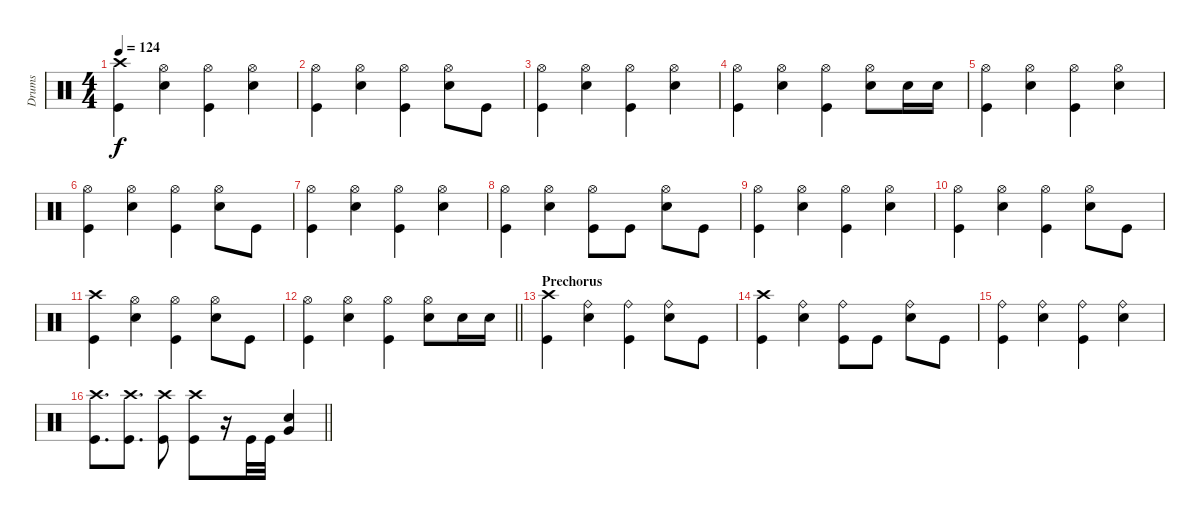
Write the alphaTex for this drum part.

\track ("Drums" "Drums") {instrument percussion}
\staff {score}
\articulation defaults
\ts (4 4)
\tempo 124
\clef neutral
\ks c
("Crash high (hit)" "Kick (hit)").4{dy f} ("Hi-Hat (open)" "Snare (hit) 2").4 ("Hi-Hat (open)" "Kick (hit)").4 ("Hi-Hat (open)" "Snare (hit) 2").4 |
("Hi-Hat (open)" "Kick (hit)").4 ("Hi-Hat (open)" "Snare (hit) 2").4 ("Hi-Hat (open)" "Kick (hit)").4 ("Hi-Hat (open)" "Snare (hit) 2").8 "Kick (hit)".8 |
("Hi-Hat (open)" "Kick (hit)").4 ("Hi-Hat (open)" "Snare (hit) 2").4 ("Hi-Hat (open)" "Kick (hit)").4 ("Hi-Hat (open)" "Snare (hit) 2").4 |
("Hi-Hat (open)" "Kick (hit)").4 ("Hi-Hat (open)" "Snare (hit) 2").4 ("Hi-Hat (open)" "Kick (hit)").4 ("Hi-Hat (open)" "Snare (hit) 2").8 "Snare (hit) 2".16 "Snare (hit) 2".16 |
("Hi-Hat (open)" "Kick (hit)").4 ("Hi-Hat (open)" "Snare (hit) 2").4 ("Hi-Hat (open)" "Kick (hit)").4 ("Hi-Hat (open)" "Snare (hit) 2").4 |
("Hi-Hat (open)" "Kick (hit)").4 ("Hi-Hat (open)" "Snare (hit) 2").4 ("Hi-Hat (open)" "Kick (hit)").4 ("Hi-Hat (open)" "Snare (hit) 2").8 "Kick (hit)".8 |
("Hi-Hat (open)" "Kick (hit)").4 ("Hi-Hat (open)" "Snare (hit) 2").4 ("Hi-Hat (open)" "Kick (hit)").4 ("Hi-Hat (open)" "Snare (hit) 2").4 |
("Hi-Hat (open)" "Kick (hit)").4 ("Hi-Hat (open)" "Snare (hit) 2").4 ("Hi-Hat (open)" "Kick (hit)").8 "Kick (hit)".8 ("Hi-Hat (open)" "Snare (hit) 2").8 "Kick (hit)".8 |
("Hi-Hat (open)" "Kick (hit)").4 ("Hi-Hat (open)" "Snare (hit) 2").4 ("Hi-Hat (open)" "Kick (hit)").4 ("Hi-Hat (open)" "Snare (hit) 2").4 |
("Hi-Hat (open)" "Kick (hit)").4 ("Hi-Hat (open)" "Snare (hit) 2").4 ("Hi-Hat (open)" "Kick (hit)").4 ("Hi-Hat (open)" "Snare (hit) 2").8 "Kick (hit)".8 |
("Crash high (hit)" "Kick (hit)").4 ("Hi-Hat (open)" "Snare (hit) 2").4 ("Hi-Hat (open)" "Kick (hit)").4 ("Hi-Hat (open)" "Snare (hit) 2").8 "Kick (hit)".8 |
\barLineRight lightlight
("Hi-Hat (open)" "Kick (hit)").4 ("Hi-Hat (open)" "Snare (hit) 2").4 ("Hi-Hat (open)" "Kick (hit)").4 ("Hi-Hat (open)" "Snare (hit) 2").8 "Snare (hit) 2".16 "Snare (hit) 2".16 |
\section ("" "Prechorus")
("Crash high (hit)" "Kick (hit)").4 ("Ride (bell)" "Snare (hit) 2").4 ("Ride (bell)" "Kick (hit)").4 ("Ride (bell)" "Snare (hit) 2").8 "Kick (hit)".8 |
("Crash high (hit)" "Kick (hit)").4 ("Ride (bell)" "Snare (hit) 2").4 ("Ride (bell)" "Kick (hit)").8 "Kick (hit)".8 ("Ride (bell)" "Snare (hit) 2").8 "Kick (hit)".8 |
("Ride (bell)" "Kick (hit)").4 ("Ride (bell)" "Snare (hit) 2").4 ("Ride (bell)" "Kick (hit)").4 ("Ride (bell)" "Snare (hit) 2").4 |
\barLineRight lightlight
("Crash high (hit)" "Kick (hit)").8{d} ("Crash high (hit)" "Kick (hit)").8{d} ("Crash high (hit)" "Kick (hit)").8 ("Crash high (hit)" "Kick (hit)").8 r.16 "Kick (hit)".32 "Kick (hit)".32 ("Snare (hit) 2" "Very Low Tom (hit)").4
